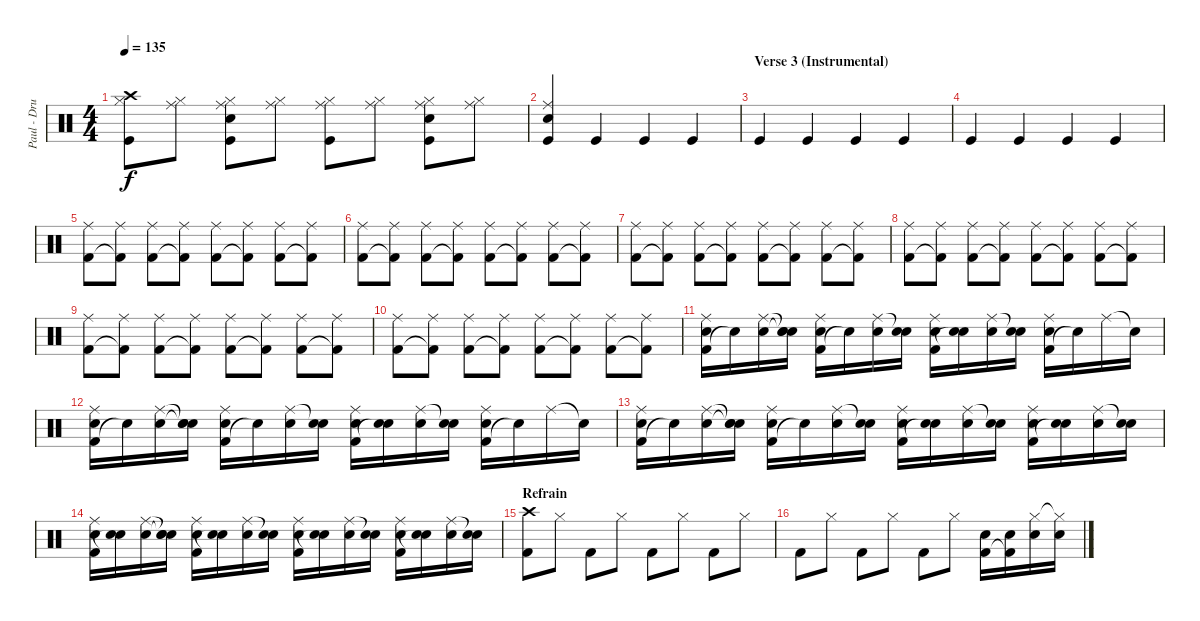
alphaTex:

\track ("Paul - Drums" "Paul - Dru") {instrument percussion}
\staff {score}
\articulation defaults
\ts (4 4)
\tempo 135
\clef neutral
\ks c
("Kick (hit)" "Hi-Hat (closed)" "Crash high (hit)").8{dy f} ("Hi-Hat (closed)" "Ride (middle)").8 ("Kick (hit)" "Hi-Hat (closed)" "Snare (hit) 2" "Ride (middle)").8 ("Hi-Hat (closed)" "Ride (middle)").8 ("Kick (hit)" "Hi-Hat (closed)" "Ride (middle)").8 ("Hi-Hat (closed)" "Ride (middle)").8 ("Kick (hit)" "Hi-Hat (closed)" "Snare (hit) 2" "Ride (middle)").8 ("Hi-Hat (closed)" "Ride (middle)").8 |
("Kick (hit)" "Snare (hit) 2" "Ride (middle)").4 "Kick (hit)".4 "Kick (hit)".4 "Kick (hit)".4 |
\section ("" "Verse 3 (Instrumental)")
"Kick (hit)".4 "Kick (hit)".4 "Kick (hit)".4 "Kick (hit)".4 |
"Kick (hit)".4 "Kick (hit)".4 "Kick (hit)".4 "Kick (hit)".4 |
("Kick (hit) 2" "Ride (middle)").8 ("Kick (hit) 2"{t} "Ride (middle)").8 ("Kick (hit) 2" "Ride (middle)").8 ("Kick (hit) 2"{t} "Ride (middle)").8 ("Kick (hit) 2" "Ride (middle)").8 ("Kick (hit) 2"{t} "Ride (middle)").8 ("Kick (hit) 2" "Ride (middle)").8 ("Kick (hit) 2"{t} "Ride (middle)").8 |
("Kick (hit) 2" "Ride (middle)").8 ("Kick (hit) 2"{t} "Ride (middle)").8 ("Kick (hit) 2" "Ride (middle)").8 ("Kick (hit) 2"{t} "Ride (middle)").8 ("Kick (hit) 2" "Ride (middle)").8 ("Kick (hit) 2"{t} "Ride (middle)").8 ("Kick (hit) 2" "Ride (middle)").8 ("Kick (hit) 2"{t} "Ride (middle)").8 |
("Kick (hit) 2" "Ride (middle)").8 ("Kick (hit) 2"{t} "Ride (middle)").8 ("Kick (hit) 2" "Ride (middle)").8 ("Kick (hit) 2"{t} "Ride (middle)").8 ("Kick (hit) 2" "Ride (middle)").8 ("Kick (hit) 2"{t} "Ride (middle)").8 ("Kick (hit) 2" "Ride (middle)").8 ("Kick (hit) 2"{t} "Ride (middle)").8 |
("Kick (hit) 2" "Ride (middle)").8 ("Kick (hit) 2"{t} "Ride (middle)").8 ("Kick (hit) 2" "Ride (middle)").8 ("Kick (hit) 2"{t} "Ride (middle)").8 ("Kick (hit) 2" "Ride (middle)").8 ("Kick (hit) 2"{t} "Ride (middle)").8 ("Kick (hit) 2" "Ride (middle)").8 ("Kick (hit) 2"{t} "Ride (middle)").8 |
("Kick (hit) 2" "Ride (middle)").8 ("Kick (hit) 2"{t} "Ride (middle)").8 ("Kick (hit) 2" "Ride (middle)").8 ("Kick (hit) 2"{t} "Ride (middle)").8 ("Kick (hit) 2" "Ride (middle)").8 ("Kick (hit) 2"{t} "Ride (middle)").8 ("Kick (hit) 2" "Ride (middle)").8 ("Kick (hit) 2"{t} "Ride (middle)").8 |
("Kick (hit) 2" "Ride (middle)").8 ("Kick (hit) 2"{t} "Ride (middle)").8 ("Kick (hit) 2" "Ride (middle)").8 ("Kick (hit) 2"{t} "Ride (middle)").8 ("Kick (hit) 2" "Ride (middle)").8 ("Kick (hit) 2"{t} "Ride (middle)").8 ("Kick (hit) 2" "Ride (middle)").8 ("Kick (hit) 2"{t} "Ride (middle)").8 |
("Kick (hit) 2" "Ride (middle)" "Snare (hit) 2").16 "Snare (hit)"{t}.16 ("Ride (middle)" "Snare (hit) 2").16 ("Snare (hit)"{t} "Snare (hit)"{t} "Snare (hit) 2").16 ("Kick (hit) 2" "Ride (middle)" "Snare (hit) 2").16 "Snare (hit)"{t}.16 ("Ride (middle)" "Snare (hit) 2").16 ("Snare (hit)"{t} "Snare (hit) 2").16 ("Kick (hit) 2" "Ride (middle)" "Snare (hit) 2").16 ("Snare (hit)"{t} "Snare (hit) 2").16 ("Ride (middle)" "Snare (hit) 2").16 ("Snare (hit)"{t} "Snare (hit) 2").16 ("Kick (hit) 2" "Ride (middle)" "Snare (hit) 2").16 "Snare (hit)"{t}.16 "Ride (middle)".16 "Snare (hit)"{t}.16 |
("Kick (hit) 2" "Ride (middle)" "Snare (hit) 2").16 "Snare (hit)"{t}.16 ("Ride (middle)" "Snare (hit) 2").16 ("Snare (hit)"{t} "Snare (hit)"{t} "Snare (hit) 2").16 ("Kick (hit) 2" "Ride (middle)" "Snare (hit) 2").16 "Snare (hit)"{t}.16 ("Ride (middle)" "Snare (hit) 2").16 ("Snare (hit)"{t} "Snare (hit) 2").16 ("Kick (hit) 2" "Ride (middle)" "Snare (hit) 2").16 ("Snare (hit)"{t} "Snare (hit) 2").16 ("Ride (middle)" "Snare (hit) 2").16 ("Snare (hit)"{t} "Snare (hit) 2").16 ("Kick (hit) 2" "Ride (middle)" "Snare (hit) 2").16 "Snare (hit)"{t}.16 "Ride (middle)".16 "Snare (hit)"{t}.16 |
("Kick (hit) 2" "Ride (middle)" "Snare (hit) 2").16 "Snare (hit)"{t}.16 ("Ride (middle)" "Snare (hit) 2").16 ("Snare (hit)"{t} "Snare (hit)"{t} "Snare (hit) 2").16 ("Kick (hit) 2" "Ride (middle)" "Snare (hit) 2").16 "Snare (hit)"{t}.16 ("Ride (middle)" "Snare (hit) 2").16 ("Snare (hit)"{t} "Snare (hit) 2").16 ("Kick (hit) 2" "Ride (middle)" "Snare (hit) 2").16 ("Snare (hit)"{t} "Snare (hit) 2").16 ("Ride (middle)" "Snare (hit) 2").16 ("Snare (hit)"{t} "Snare (hit) 2").16 ("Kick (hit) 2" "Ride (middle)" "Snare (hit) 2").16 ("Snare (hit)"{t} "Snare (hit) 2").16 ("Ride (middle)" "Snare (hit) 2").16 ("Snare (hit)"{t} "Snare (hit) 2").16 |
("Kick (hit) 2" "Ride (middle)" "Snare (hit) 2").16 ("Snare (hit)"{t} "Snare (hit) 2").16 ("Ride (middle)" "Snare (hit) 2").16 ("Snare (hit)"{t} "Snare (hit)"{t} "Snare (hit) 2").16 ("Kick (hit) 2" "Ride (middle)" "Snare (hit) 2").16 ("Snare (hit)"{t} "Snare (hit) 2").16 ("Ride (middle)" "Snare (hit) 2").16 ("Snare (hit)"{t} "Snare (hit) 2").16 ("Kick (hit) 2" "Ride (middle)" "Snare (hit) 2").16 ("Snare (hit)"{t} "Snare (hit) 2").16 ("Ride (middle)" "Snare (hit) 2").16 ("Snare (hit)"{t} "Snare (hit) 2").16 ("Kick (hit) 2" "Ride (middle)" "Snare (hit) 2").16 ("Snare (hit)"{t} "Snare (hit) 2").16 ("Ride (middle)" "Snare (hit) 2").16 ("Snare (hit)"{t} "Snare (hit) 2").16 |
\section ("" "Refrain")
("Kick (hit) 2" "Crash high (hit)").8 "Hi-Hat (closed)".8 "Kick (hit) 2".8 "Hi-Hat (closed)".8 "Kick (hit) 2".8 "Hi-Hat (closed)".8 "Kick (hit) 2".8 "Hi-Hat (closed)".8 |
"Kick (hit) 2".8 "Hi-Hat (closed)".8 "Kick (hit) 2".8 "Hi-Hat (closed)".8 "Kick (hit) 2".8 "Hi-Hat (closed)".8 ("Kick (hit) 2" "Snare (hit) 2").16 ("Kick (hit) 2"{t} "Snare (hit) 2").16 ("Hi-Hat (closed)" "Snare (hit) 2").16 ("Hi-Hat (closed)"{t} "Snare (hit) 2").16
